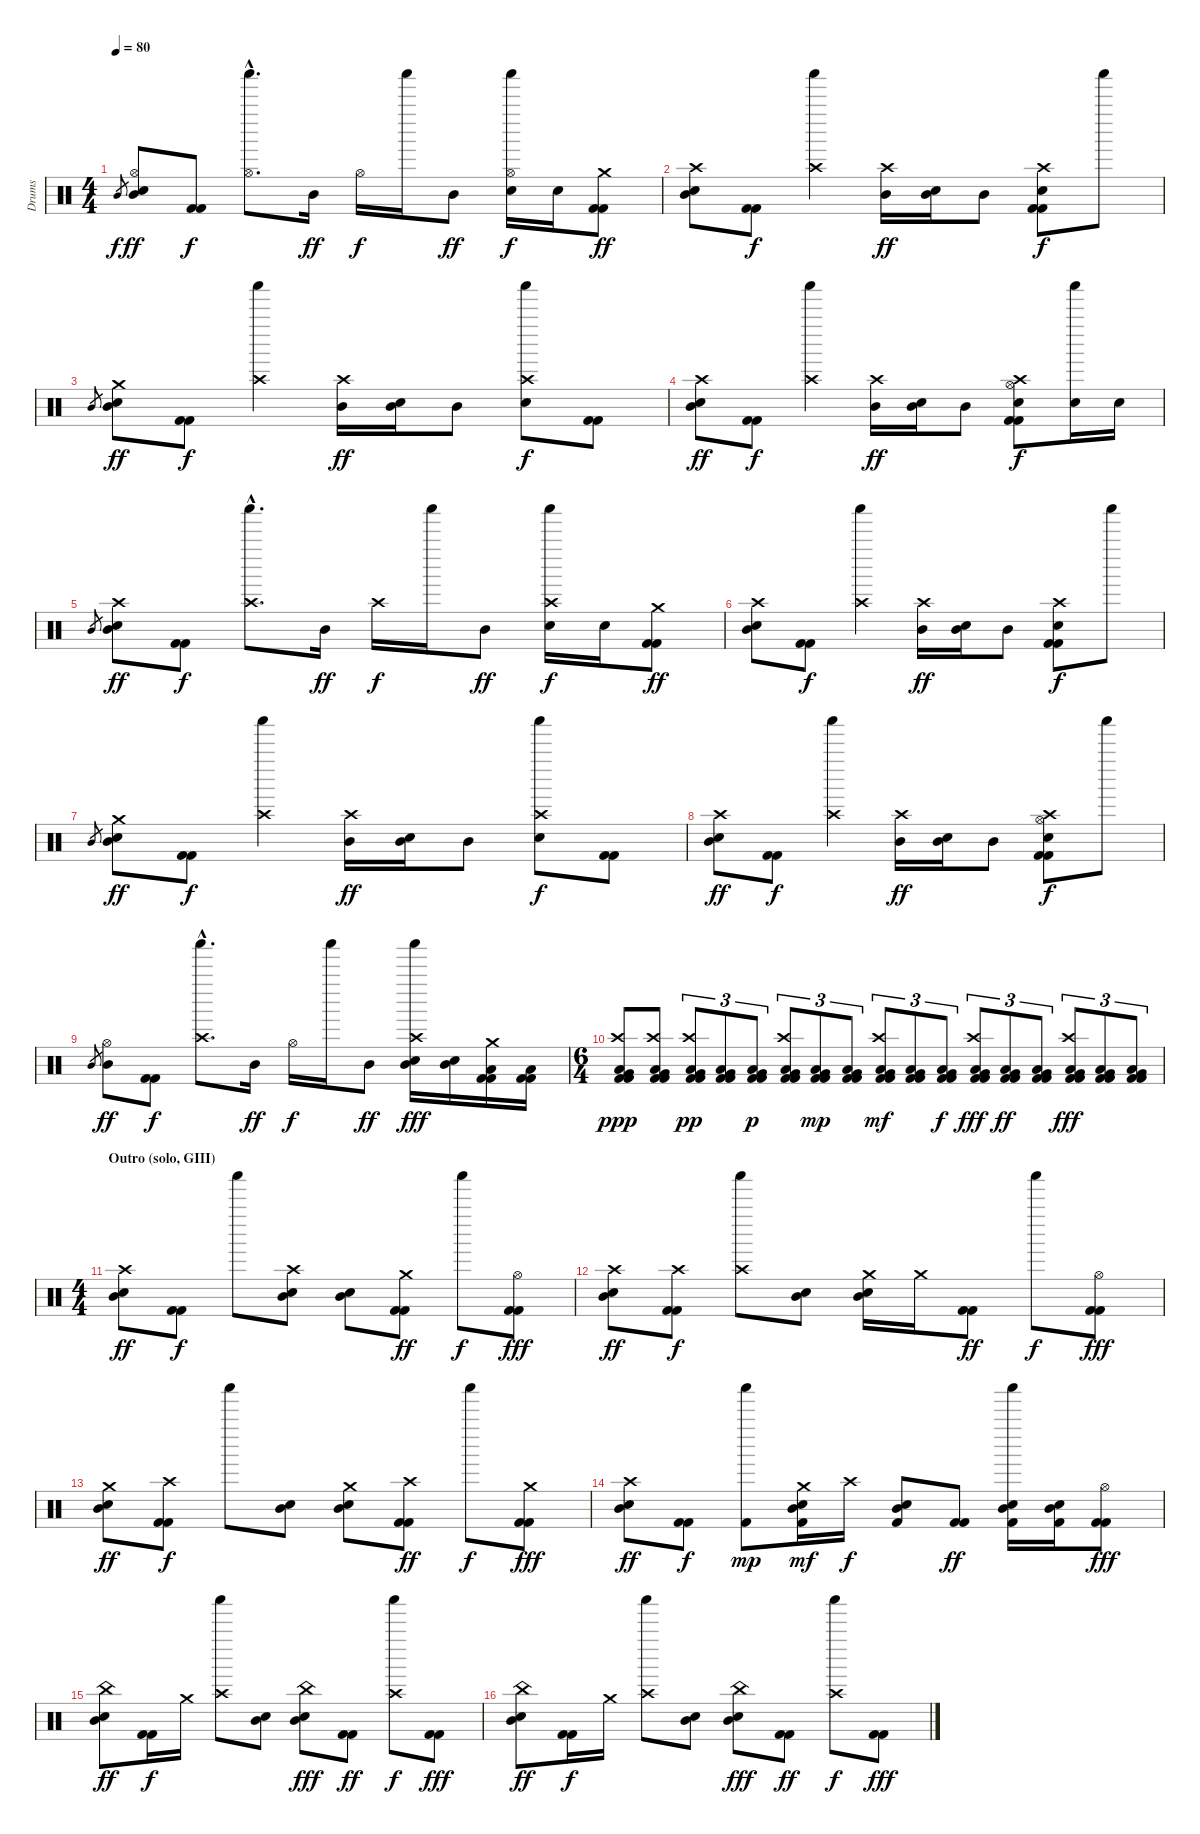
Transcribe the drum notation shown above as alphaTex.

\track ("Drums" "Drums") {instrument percussion}
\staff {score}
\articulation defaults
\ts (4 4)
\tempo 80
\clef neutral
\ks c "Mid Tom (hit)".8{gr dy f}
("Hi-Hat (open)" "Mid Tom (hit)" "Electric Snare (hit)").8{dy ff} ("Kick (hit) 2" "Kick (hit) 2").8{dy f} ("Shaker (hit)"{hac} "Hi-Hat (open)"{hac}).8{d} "Mid Tom (hit)".16{dy ff} "Hi-Hat (open)".16{dy f} "Shaker (hit)".16 "Mid Tom (hit)".8{dy ff} ("Shaker (hit)" "Hi-Hat (open)" "Electric Snare (hit)").16{dy f} "Electric Snare (hit)".16 ("Crash medium (hit)" "Kick (hit) 2" "Kick (hit) 2").8{dy ff} |
("Crash high (hit)" "Mid Tom (hit)" "Electric Snare (hit)").8{bd 60} ("Kick (hit) 2" "Kick (hit) 2").8{dy f} ("Shaker (hit)" "Crash high (hit)").4 ("Crash high (hit)" "Mid Tom (hit)").16{dy ff} ("Mid Tom (hit)" "Electric Snare (hit)").16 "Mid Tom (hit)".8 ("Crash high (hit)" "Electric Snare (hit)" "Kick (hit) 2" "Kick (hit) 2").8{dy f} "Shaker (hit)".8 |
"Mid Tom (hit)".8{gr} ("Crash medium (hit)" "Mid Tom (hit)" "Electric Snare (hit)").8{dy ff} ("Kick (hit) 2" "Kick (hit) 2").8{dy f} ("Shaker (hit)" "Crash high (hit)").4 ("Crash high (hit)" "Mid Tom (hit)").16{dy ff} ("Mid Tom (hit)" "Electric Snare (hit)").16 "Mid Tom (hit)".8 ("Shaker (hit)" "Crash high (hit)" "Electric Snare (hit)").8{dy f} ("Kick (hit) 2" "Kick (hit) 2").8 |
("Crash high (hit)" "Mid Tom (hit)" "Electric Snare (hit)").8{bd 60 dy ff} ("Kick (hit) 2" "Kick (hit) 2").8{dy f} ("Shaker (hit)" "Crash high (hit)").4 ("Crash high (hit)" "Mid Tom (hit)").16{dy ff} ("Mid Tom (hit)" "Electric Snare (hit)").16 "Mid Tom (hit)".8 ("Hi-Hat (open)" "Crash high (hit)" "Electric Snare (hit)" "Kick (hit) 2" "Kick (hit) 2").8{dy f} ("Shaker (hit)" "Electric Snare (hit)").16 "Electric Snare (hit)".16 |
"Mid Tom (hit)".8{gr} ("Crash high (hit)" "Mid Tom (hit)" "Electric Snare (hit)").8{dy ff} ("Kick (hit) 2" "Kick (hit) 2").8{dy f} ("Shaker (hit)"{hac} "Crash high (hit)"{hac}).8{d} "Mid Tom (hit)".16{dy ff} "Crash high (hit)".16{dy f} "Shaker (hit)".16 "Mid Tom (hit)".8{dy ff} ("Shaker (hit)" "Crash high (hit)" "Electric Snare (hit)").16{dy f} "Electric Snare (hit)".16 ("Crash medium (hit)" "Kick (hit) 2" "Kick (hit) 2").8{dy ff} |
("Crash high (hit)" "Mid Tom (hit)" "Electric Snare (hit)").8{bd 60} ("Kick (hit) 2" "Kick (hit) 2").8{dy f} ("Shaker (hit)" "Crash high (hit)").4 ("Crash high (hit)" "Mid Tom (hit)").16{dy ff} ("Mid Tom (hit)" "Electric Snare (hit)").16 "Mid Tom (hit)".8 ("Crash high (hit)" "Electric Snare (hit)" "Kick (hit) 2" "Kick (hit) 2").8{dy f} "Shaker (hit)".8 |
"Mid Tom (hit)".8{gr} ("Crash medium (hit)" "Mid Tom (hit)" "Electric Snare (hit)").8{dy ff} ("Kick (hit) 2" "Kick (hit) 2").8{dy f} ("Shaker (hit)" "Crash high (hit)").4 ("Crash high (hit)" "Mid Tom (hit)").16{dy ff} ("Mid Tom (hit)" "Electric Snare (hit)").16 "Mid Tom (hit)".8 ("Shaker (hit)" "Crash high (hit)" "Electric Snare (hit)").8{dy f} ("Kick (hit) 2" "Kick (hit) 2").8 |
("Crash high (hit)" "Mid Tom (hit)" "Electric Snare (hit)").8{bd 60 dy ff} ("Kick (hit) 2" "Kick (hit) 2").8{dy f} ("Shaker (hit)" "Crash high (hit)").4 ("Crash high (hit)" "Mid Tom (hit)").16{dy ff} ("Mid Tom (hit)" "Electric Snare (hit)").16 "Mid Tom (hit)".8 ("Hi-Hat (open)" "Crash high (hit)" "Electric Snare (hit)" "Kick (hit) 2" "Kick (hit) 2").8{dy f} "Shaker (hit)".8 |
"Mid Tom (hit)".8{gr} ("Hi-Hat (open)" "Mid Tom (hit)").8{dy ff} ("Kick (hit) 2" "Kick (hit) 2").8{dy f} ("Shaker (hit)"{hac} "Crash high (hit)"{hac}).8{d} "Mid Tom (hit)".16{dy ff} "Hi-Hat (open)".16{dy f} "Shaker (hit)".16 "Mid Tom (hit)".8{dy ff} ("Shaker (hit)" "Crash high (hit)" "Mid Tom (hit)" "Electric Snare (hit)").16{dy fff} ("Mid Tom (hit)" "Electric Snare (hit)").16 ("Crash medium (hit)" "Low Floor Tom (hit)" "Kick (hit) 2" "Kick (hit) 2").16 ("Low Floor Tom (hit)" "Kick (hit) 2" "Kick (hit) 2").16 |
\ts (6 4)
("Crash high (hit)" "Low Floor Tom (hit)" "Very Low Tom (hit)" "Kick (hit) 2" "Kick (hit) 2").8{dy ppp} ("Crash high (hit)" "Low Floor Tom (hit)" "Very Low Tom (hit)" "Kick (hit) 2" "Kick (hit) 2").8 ("Crash high (hit)" "Low Floor Tom (hit)" "Very Low Tom (hit)" "Kick (hit) 2" "Kick (hit) 2").8{tu (3 2) dy pp} ("Low Floor Tom (hit)" "Very Low Tom (hit)" "Kick (hit) 2" "Kick (hit) 2").8{tu (3 2)} ("Low Floor Tom (hit)" "Very Low Tom (hit)" "Kick (hit) 2" "Kick (hit) 2").8{tu (3 2) dy p} ("Crash high (hit)" "Low Floor Tom (hit)" "Very Low Tom (hit)" "Kick (hit) 2" "Kick (hit) 2").8{tu (3 2)} ("Low Floor Tom (hit)" "Very Low Tom (hit)" "Kick (hit) 2" "Kick (hit) 2").8{tu (3 2) dy mp} ("Low Floor Tom (hit)" "Very Low Tom (hit)" "Kick (hit) 2" "Kick (hit) 2").8{tu (3 2)} ("Crash high (hit)" "Low Floor Tom (hit)" "Very Low Tom (hit)" "Kick (hit) 2" "Kick (hit) 2").8{tu (3 2) dy mf} ("Low Floor Tom (hit)" "Very Low Tom (hit)" "Kick (hit) 2" "Kick (hit) 2").8{tu (3 2)} ("Low Floor Tom (hit)" "Very Low Tom (hit)" "Kick (hit) 2" "Kick (hit) 2").8{tu (3 2) dy f} ("Crash high (hit)" "Low Floor Tom (hit)" "Very Low Tom (hit)" "Kick (hit) 2" "Kick (hit) 2").8{tu (3 2) dy fff} ("Low Floor Tom (hit)" "Very Low Tom (hit)" "Kick (hit) 2" "Kick (hit) 2").8{tu (3 2) dy ff} ("Low Floor Tom (hit)" "Very Low Tom (hit)" "Kick (hit) 2" "Kick (hit) 2").8{tu (3 2)} ("Crash high (hit)" "Low Floor Tom (hit)" "Very Low Tom (hit)" "Kick (hit) 2" "Kick (hit) 2").8{tu (3 2) dy fff} ("Low Floor Tom (hit)" "Very Low Tom (hit)" "Kick (hit) 2" "Kick (hit) 2").8{tu (3 2)} ("Low Floor Tom (hit)" "Very Low Tom (hit)" "Kick (hit) 2" "Kick (hit) 2").8{tu (3 2)} |
\ts (4 4)
\section ("" "Outro (solo, GIII)")
("Crash high (hit)" "Mid Tom (hit)" "Electric Snare (hit)").8{dy ff} ("Kick (hit) 2" "Kick (hit) 2").8{dy f} "Shaker (hit)".8 ("Crash high (hit)" "Mid Tom (hit)" "Electric Snare (hit)").8 ("Mid Tom (hit)" "Electric Snare (hit)").8 ("Crash medium (hit)" "Kick (hit) 2" "Kick (hit) 2").8{dy ff} "Shaker (hit)".8{dy f} ("Hi-Hat (open)" "Kick (hit) 2" "Kick (hit) 2").8{dy fff} |
("Crash high (hit)" "Mid Tom (hit)" "Electric Snare (hit)").8{bd 60 dy ff} ("Crash high (hit)" "Kick (hit) 2" "Kick (hit) 2").8{dy f} ("Shaker (hit)" "Crash high (hit)").8 ("Mid Tom (hit)" "Electric Snare (hit)").8 ("Crash medium (hit)" "Mid Tom (hit)" "Electric Snare (hit)").16 "Crash medium (hit)".16 ("Kick (hit) 2" "Kick (hit) 2").8{dy ff} "Shaker (hit)".8{dy f} ("Hi-Hat (open)" "Kick (hit) 2" "Kick (hit) 2").8{dy fff} |
("Crash medium (hit)" "Mid Tom (hit)" "Electric Snare (hit)").8{bd 60 dy ff} ("Crash high (hit)" "Kick (hit) 2" "Kick (hit) 2").8{dy f} "Shaker (hit)".8 ("Mid Tom (hit)" "Electric Snare (hit)").8 ("Crash medium (hit)" "Mid Tom (hit)" "Electric Snare (hit)").8 ("Crash high (hit)" "Kick (hit) 2" "Kick (hit) 2").8{dy ff} "Shaker (hit)".8{dy f} ("Crash medium (hit)" "Kick (hit) 2" "Kick (hit) 2").8{dy fff} |
("Crash high (hit)" "Mid Tom (hit)" "Electric Snare (hit)").8{bd 60 dy ff} ("Kick (hit) 2" "Kick (hit) 2").8{dy f} ("Shaker (hit)" "Kick (hit) 2").8{dy mp} ("Crash medium (hit)" "Mid Tom (hit)" "Electric Snare (hit)" "Kick (hit) 2").16{dy mf} "Crash high (hit)".16{dy f} ("Mid Tom (hit)" "Electric Snare (hit)" "Kick (hit) 2").8 ("Kick (hit) 2" "Kick (hit) 2").8{dy ff} ("Shaker (hit)" "Mid Tom (hit)" "Electric Snare (hit)" "Kick (hit) 2").16 ("Mid Tom (hit)" "Electric Snare (hit)" "Kick (hit) 2").16 ("Hi-Hat (open)" "Kick (hit) 2" "Kick (hit) 2").8{dy fff} |
("China (hit)" "Mid Tom (hit)" "Electric Snare (hit)").8{dy ff} ("Kick (hit) 2" "Kick (hit) 2").16{dy f} "Crash medium (hit)".16 ("Shaker (hit)" "Crash high (hit)").8 ("Mid Tom (hit)" "Electric Snare (hit)").8 ("China (hit)" "Mid Tom (hit)" "Electric Snare (hit)").8{dy fff} ("Kick (hit) 2" "Kick (hit) 2").8{dy ff} ("Shaker (hit)" "Crash high (hit)").8{dy f} ("Kick (hit) 2" "Kick (hit) 2").8{dy fff} |
("China (hit)" "Mid Tom (hit)" "Electric Snare (hit)").8{bd 60 dy ff} ("Kick (hit) 2" "Kick (hit) 2").16{dy f} "Crash medium (hit)".16 ("Shaker (hit)" "Crash high (hit)").8 ("Mid Tom (hit)" "Electric Snare (hit)").8 ("China (hit)" "Mid Tom (hit)" "Electric Snare (hit)").8{dy fff} ("Kick (hit) 2" "Kick (hit) 2").8{dy ff} ("Shaker (hit)" "Crash high (hit)").8{dy f} ("Kick (hit) 2" "Kick (hit) 2").8{dy fff}
